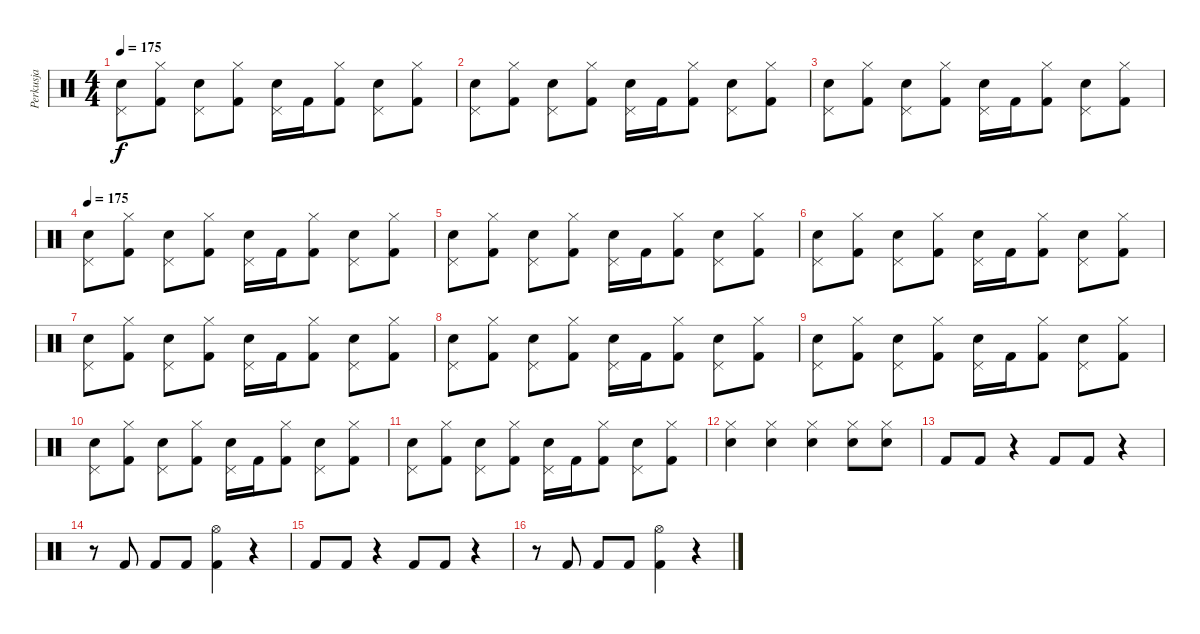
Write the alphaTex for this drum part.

\track ("Perkusja" "Perkusja") {instrument percussion}
\staff {score}
\articulation defaults
\ts (4 4)
\tempo 175
\clef neutral
\ks c
("Snare (hit) 2" "Pedal Hi-Hat (hit)").8{dy f} ("Kick (hit) 2" "Hi-Hat (closed)").8 ("Snare (hit) 2" "Pedal Hi-Hat (hit)").8 ("Kick (hit) 2" "Hi-Hat (closed)").8 ("Snare (hit) 2" "Pedal Hi-Hat (hit)").16 "Kick (hit) 2".16 ("Kick (hit) 2" "Hi-Hat (closed)").8 ("Snare (hit) 2" "Pedal Hi-Hat (hit)").8 ("Kick (hit) 2" "Hi-Hat (closed)").8 |
("Snare (hit) 2" "Pedal Hi-Hat (hit)").8 ("Kick (hit) 2" "Hi-Hat (closed)").8 ("Snare (hit) 2" "Pedal Hi-Hat (hit)").8 ("Kick (hit) 2" "Hi-Hat (closed)").8 ("Snare (hit) 2" "Pedal Hi-Hat (hit)").16 "Kick (hit) 2".16 ("Kick (hit) 2" "Hi-Hat (closed)").8 ("Snare (hit) 2" "Pedal Hi-Hat (hit)").8 ("Kick (hit) 2" "Hi-Hat (closed)").8 |
("Snare (hit) 2" "Pedal Hi-Hat (hit)").8 ("Kick (hit) 2" "Hi-Hat (closed)").8 ("Snare (hit) 2" "Pedal Hi-Hat (hit)").8 ("Kick (hit) 2" "Hi-Hat (closed)").8 ("Snare (hit) 2" "Pedal Hi-Hat (hit)").16 "Kick (hit) 2".16 ("Kick (hit) 2" "Hi-Hat (closed)").8 ("Snare (hit) 2" "Pedal Hi-Hat (hit)").8 ("Kick (hit) 2" "Hi-Hat (closed)").8 |
\tempo 175
("Snare (hit) 2" "Pedal Hi-Hat (hit)").8 ("Kick (hit) 2" "Hi-Hat (closed)").8 ("Snare (hit) 2" "Pedal Hi-Hat (hit)").8 ("Kick (hit) 2" "Hi-Hat (closed)").8 ("Snare (hit) 2" "Pedal Hi-Hat (hit)").16 "Kick (hit) 2".16 ("Kick (hit) 2" "Hi-Hat (closed)").8 ("Snare (hit) 2" "Pedal Hi-Hat (hit)").8 ("Kick (hit) 2" "Hi-Hat (closed)").8 |
("Snare (hit) 2" "Pedal Hi-Hat (hit)").8 ("Kick (hit) 2" "Hi-Hat (closed)").8 ("Snare (hit) 2" "Pedal Hi-Hat (hit)").8 ("Kick (hit) 2" "Hi-Hat (closed)").8 ("Snare (hit) 2" "Pedal Hi-Hat (hit)").16 "Kick (hit) 2".16 ("Kick (hit) 2" "Hi-Hat (closed)").8 ("Snare (hit) 2" "Pedal Hi-Hat (hit)").8 ("Kick (hit) 2" "Hi-Hat (closed)").8 |
("Snare (hit) 2" "Pedal Hi-Hat (hit)").8 ("Kick (hit) 2" "Hi-Hat (closed)").8 ("Snare (hit) 2" "Pedal Hi-Hat (hit)").8 ("Kick (hit) 2" "Hi-Hat (closed)").8 ("Snare (hit) 2" "Pedal Hi-Hat (hit)").16 "Kick (hit) 2".16 ("Kick (hit) 2" "Hi-Hat (closed)").8 ("Snare (hit) 2" "Pedal Hi-Hat (hit)").8 ("Kick (hit) 2" "Hi-Hat (closed)").8 |
("Snare (hit) 2" "Pedal Hi-Hat (hit)").8 ("Kick (hit) 2" "Hi-Hat (closed)").8 ("Snare (hit) 2" "Pedal Hi-Hat (hit)").8 ("Kick (hit) 2" "Hi-Hat (closed)").8 ("Snare (hit) 2" "Pedal Hi-Hat (hit)").16 "Kick (hit) 2".16 ("Kick (hit) 2" "Hi-Hat (closed)").8 ("Snare (hit) 2" "Pedal Hi-Hat (hit)").8 ("Kick (hit) 2" "Hi-Hat (closed)").8 |
("Snare (hit) 2" "Pedal Hi-Hat (hit)").8 ("Kick (hit) 2" "Hi-Hat (closed)").8 ("Snare (hit) 2" "Pedal Hi-Hat (hit)").8 ("Kick (hit) 2" "Hi-Hat (closed)").8 ("Snare (hit) 2" "Pedal Hi-Hat (hit)").16 "Kick (hit) 2".16 ("Kick (hit) 2" "Hi-Hat (closed)").8 ("Snare (hit) 2" "Pedal Hi-Hat (hit)").8 ("Kick (hit) 2" "Hi-Hat (closed)").8 |
("Snare (hit) 2" "Pedal Hi-Hat (hit)").8 ("Kick (hit) 2" "Hi-Hat (closed)").8 ("Snare (hit) 2" "Pedal Hi-Hat (hit)").8 ("Kick (hit) 2" "Hi-Hat (closed)").8 ("Snare (hit) 2" "Pedal Hi-Hat (hit)").16 "Kick (hit) 2".16 ("Kick (hit) 2" "Hi-Hat (closed)").8 ("Snare (hit) 2" "Pedal Hi-Hat (hit)").8 ("Kick (hit) 2" "Hi-Hat (closed)").8 |
("Snare (hit) 2" "Pedal Hi-Hat (hit)").8 ("Kick (hit) 2" "Hi-Hat (closed)").8 ("Snare (hit) 2" "Pedal Hi-Hat (hit)").8 ("Kick (hit) 2" "Hi-Hat (closed)").8 ("Snare (hit) 2" "Pedal Hi-Hat (hit)").16 "Kick (hit) 2".16 ("Kick (hit) 2" "Hi-Hat (closed)").8 ("Snare (hit) 2" "Pedal Hi-Hat (hit)").8 ("Kick (hit) 2" "Hi-Hat (closed)").8 |
("Snare (hit) 2" "Pedal Hi-Hat (hit)").8 ("Kick (hit) 2" "Hi-Hat (closed)").8 ("Snare (hit) 2" "Pedal Hi-Hat (hit)").8 ("Kick (hit) 2" "Hi-Hat (closed)").8 ("Snare (hit) 2" "Pedal Hi-Hat (hit)").16 "Kick (hit) 2".16 ("Kick (hit) 2" "Hi-Hat (closed)").8 ("Snare (hit) 2" "Pedal Hi-Hat (hit)").8 ("Kick (hit) 2" "Hi-Hat (closed)").8 |
("Snare (hit) 2" "Hi-Hat (closed)").4 ("Snare (hit) 2" "Hi-Hat (closed)").4 ("Snare (hit) 2" "Hi-Hat (closed)").4 ("Snare (hit) 2" "Hi-Hat (closed)").8 ("Snare (hit) 2" "Hi-Hat (closed)").8 |
"Kick (hit) 2".8 "Kick (hit) 2".8 r.4 "Kick (hit) 2".8 "Kick (hit) 2".8 r.4 |
r.8 "Kick (hit) 2".8 "Kick (hit) 2".8 "Kick (hit) 2".8 ("Kick (hit) 2" "Hi-Hat (open)").4 r.4 |
"Kick (hit) 2".8 "Kick (hit) 2".8 r.4 "Kick (hit) 2".8 "Kick (hit) 2".8 r.4 |
r.8 "Kick (hit) 2".8 "Kick (hit) 2".8 "Kick (hit) 2".8 ("Kick (hit) 2" "Hi-Hat (open)").4 r.4
